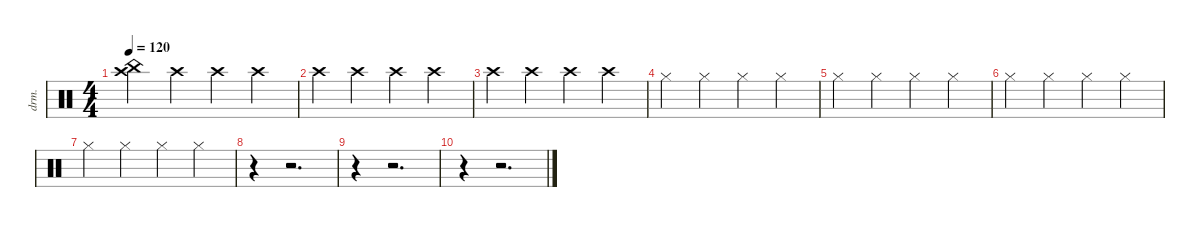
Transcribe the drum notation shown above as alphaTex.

\defaultSystemsLayout 4
\hideDynamics
\bracketExtendMode nobrackets
\otherSystemsTrackNameOrientation horizontal
\track ("Batterie" "drm.") {instrument percussion}
\staff {score}
\articulation defaults
\ts (4 4)
\tempo 120
\clef neutral
\ks c
("China (hit)" "Crash high (hit)").4{dy f} "Crash high (hit)".4 "Crash high (hit)".4 "Crash high (hit)".4 |
"Crash high (hit)".4 "Crash high (hit)".4 "Crash high (hit)".4 "Crash high (hit)".4 |
"Crash high (hit)".4 "Crash high (hit)".4 "Crash high (hit)".4 "Crash high (hit)".4 |
"Hi-Hat (closed)".4 "Hi-Hat (closed)".4 "Hi-Hat (closed)".4 "Hi-Hat (closed)".4 |
"Hi-Hat (closed)".4 "Hi-Hat (closed)".4 "Hi-Hat (closed)".4 "Hi-Hat (closed)".4 |
"Hi-Hat (closed)".4 "Hi-Hat (closed)".4 "Hi-Hat (closed)".4 "Hi-Hat (closed)".4 |
"Hi-Hat (closed)".4 "Hi-Hat (closed)".4 "Hi-Hat (closed)".4 "Hi-Hat (closed)".4 |
r.4 r.2{d} |
r.4 r.2{d} |
r.4 r.2{d}
